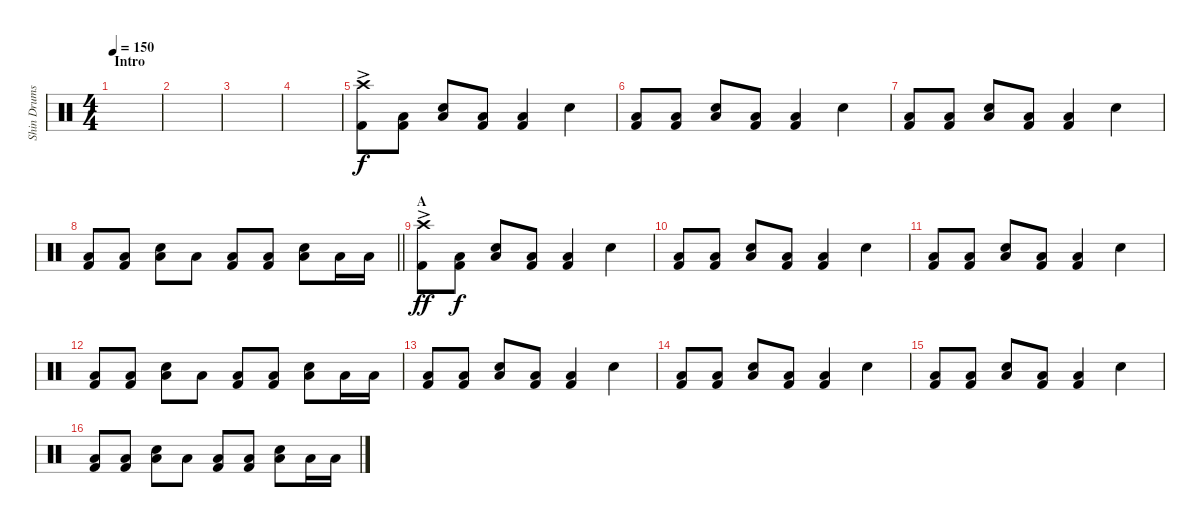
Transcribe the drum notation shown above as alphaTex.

\track ("Shin Drums" "Shin Drums") {instrument percussion}
\staff {score}
\articulation defaults
\ts (4 4)
\section ("" "Intro")
\tempo 150
\clef neutral
\ks c
|
|
|
|
("Crash high (hit)"{ac} "Kick (hit) 2").8 ("Low Floor Tom (hit)" "Kick (hit) 2").8{dy f} ("Snare (hit) 2" "Low Floor Tom (hit)").8 ("Low Floor Tom (hit)" "Kick (hit) 2").8 ("Low Floor Tom (hit)" "Kick (hit) 2").4 "Snare (hit) 2".4 |
("Low Floor Tom (hit)" "Kick (hit) 2").8 ("Low Floor Tom (hit)" "Kick (hit) 2").8 ("Snare (hit) 2" "Low Floor Tom (hit)").8 ("Low Floor Tom (hit)" "Kick (hit) 2").8 ("Low Floor Tom (hit)" "Kick (hit) 2").4 "Snare (hit) 2".4 |
("Low Floor Tom (hit)" "Kick (hit) 2").8 ("Low Floor Tom (hit)" "Kick (hit) 2").8 ("Snare (hit) 2" "Low Floor Tom (hit)").8 ("Low Floor Tom (hit)" "Kick (hit) 2").8 ("Low Floor Tom (hit)" "Kick (hit) 2").4 "Snare (hit) 2".4 |
\barLineRight lightlight
("Low Floor Tom (hit)" "Kick (hit) 2").8 ("Low Floor Tom (hit)" "Kick (hit) 2").8 ("Snare (hit) 2" "Low Floor Tom (hit)").8 "Low Floor Tom (hit)".8 ("Low Floor Tom (hit)" "Kick (hit) 2").8 ("Low Floor Tom (hit)" "Kick (hit) 2").8 ("Snare (hit) 2" "Low Floor Tom (hit)").8 "Low Floor Tom (hit)".16 "Low Floor Tom (hit)".16 |
\section ("" "A")
("Crash high (hit)"{ac} "Kick (hit) 2").8{dy ff} ("Low Floor Tom (hit)" "Kick (hit) 2").8{dy f} ("Snare (hit) 2" "Low Floor Tom (hit)").8 ("Low Floor Tom (hit)" "Kick (hit) 2").8 ("Low Floor Tom (hit)" "Kick (hit) 2").4 "Snare (hit) 2".4 |
("Low Floor Tom (hit)" "Kick (hit) 2").8 ("Low Floor Tom (hit)" "Kick (hit) 2").8 ("Snare (hit) 2" "Low Floor Tom (hit)").8 ("Low Floor Tom (hit)" "Kick (hit) 2").8 ("Low Floor Tom (hit)" "Kick (hit) 2").4 "Snare (hit) 2".4 |
("Low Floor Tom (hit)" "Kick (hit) 2").8 ("Low Floor Tom (hit)" "Kick (hit) 2").8 ("Snare (hit) 2" "Low Floor Tom (hit)").8 ("Low Floor Tom (hit)" "Kick (hit) 2").8 ("Low Floor Tom (hit)" "Kick (hit) 2").4 "Snare (hit) 2".4 |
("Low Floor Tom (hit)" "Kick (hit) 2").8 ("Low Floor Tom (hit)" "Kick (hit) 2").8 ("Snare (hit) 2" "Low Floor Tom (hit)").8 "Low Floor Tom (hit)".8 ("Low Floor Tom (hit)" "Kick (hit) 2").8 ("Low Floor Tom (hit)" "Kick (hit) 2").8 ("Snare (hit) 2" "Low Floor Tom (hit)").8 "Low Floor Tom (hit)".16 "Low Floor Tom (hit)".16 |
("Low Floor Tom (hit)" "Kick (hit) 2").8 ("Low Floor Tom (hit)" "Kick (hit) 2").8 ("Snare (hit) 2" "Low Floor Tom (hit)").8 ("Low Floor Tom (hit)" "Kick (hit) 2").8 ("Low Floor Tom (hit)" "Kick (hit) 2").4 "Snare (hit) 2".4 |
("Low Floor Tom (hit)" "Kick (hit) 2").8 ("Low Floor Tom (hit)" "Kick (hit) 2").8 ("Snare (hit) 2" "Low Floor Tom (hit)").8 ("Low Floor Tom (hit)" "Kick (hit) 2").8 ("Low Floor Tom (hit)" "Kick (hit) 2").4 "Snare (hit) 2".4 |
("Low Floor Tom (hit)" "Kick (hit) 2").8 ("Low Floor Tom (hit)" "Kick (hit) 2").8 ("Snare (hit) 2" "Low Floor Tom (hit)").8 ("Low Floor Tom (hit)" "Kick (hit) 2").8 ("Low Floor Tom (hit)" "Kick (hit) 2").4 "Snare (hit) 2".4 |
("Low Floor Tom (hit)" "Kick (hit) 2").8 ("Low Floor Tom (hit)" "Kick (hit) 2").8 ("Snare (hit) 2" "Low Floor Tom (hit)").8 "Low Floor Tom (hit)".8 ("Low Floor Tom (hit)" "Kick (hit) 2").8 ("Low Floor Tom (hit)" "Kick (hit) 2").8 ("Snare (hit) 2" "Low Floor Tom (hit)").8 "Low Floor Tom (hit)".16 "Low Floor Tom (hit)".16
